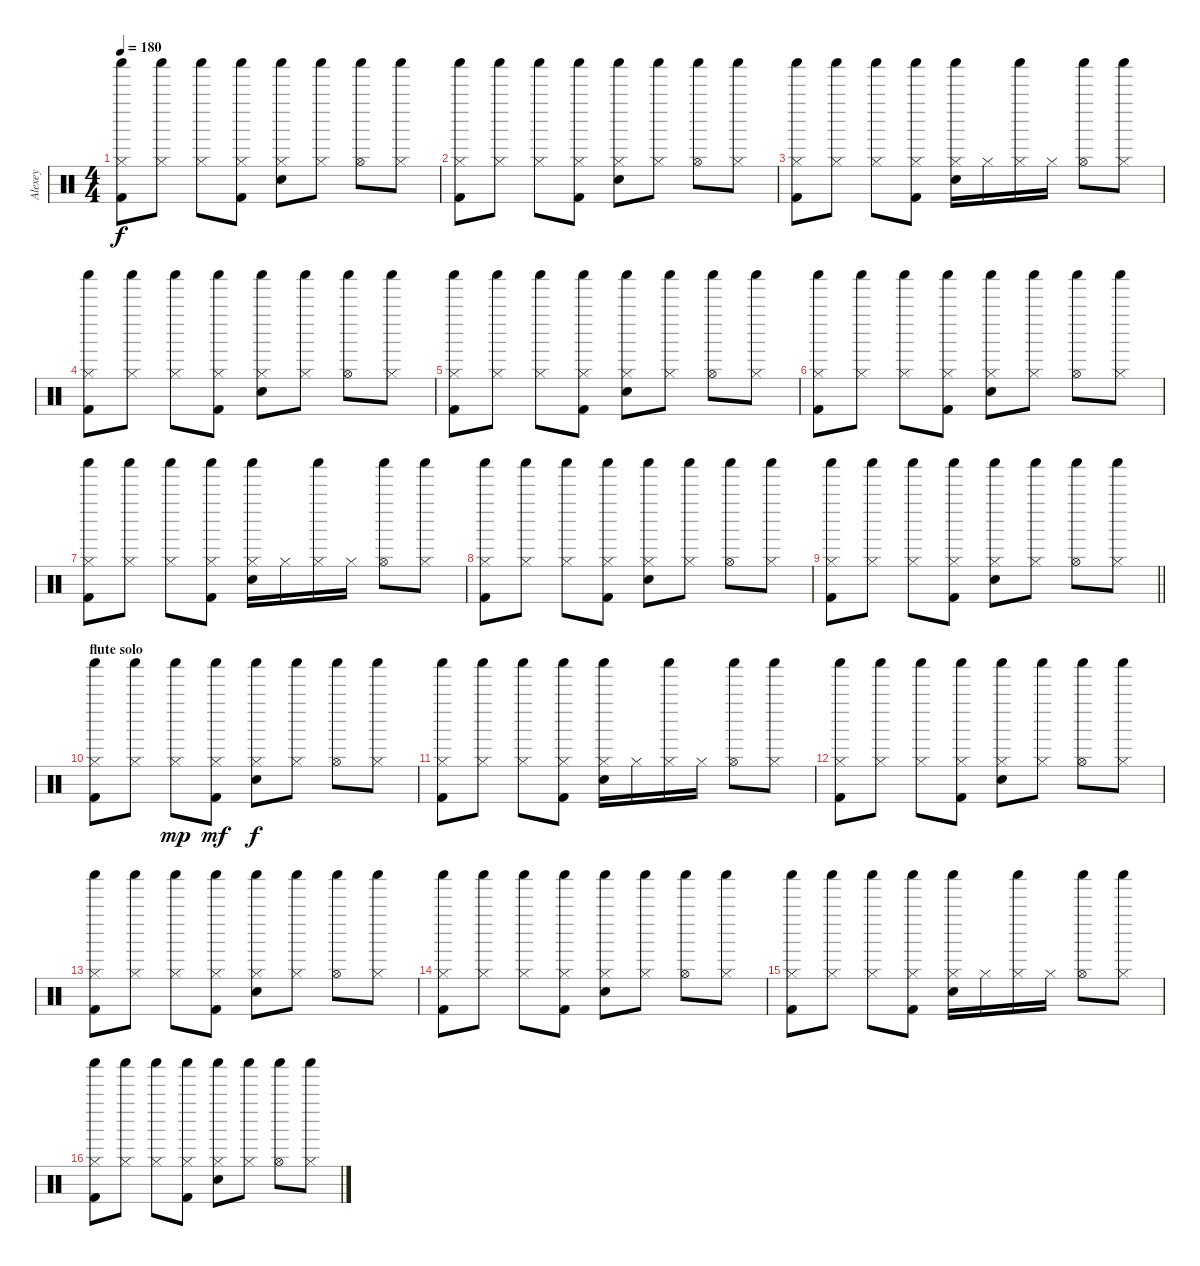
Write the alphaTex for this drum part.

\track ("Alexey" "Alexey") {instrument percussion}
\staff {score}
\articulation defaults
\ts (4 4)
\tempo 180
\clef neutral
\ks c
("Hi-Hat (closed)" "Shaker (hit)" "Kick (hit) 2").8{dy f} ("Hi-Hat (closed)" "Shaker (hit)").8 ("Hi-Hat (closed)" "Shaker (hit)").8 ("Hi-Hat (closed)" "Shaker (hit)" "Kick (hit) 2").8 ("Hi-Hat (closed)" "Shaker (hit)" "Snare (hit) 2").8 ("Hi-Hat (closed)" "Shaker (hit)").8 ("Hi-Hat (open)" "Shaker (hit)").8 ("Hi-Hat (closed)" "Shaker (hit)").8 |
("Hi-Hat (closed)" "Shaker (hit)" "Kick (hit) 2").8 ("Hi-Hat (closed)" "Shaker (hit)").8 ("Hi-Hat (closed)" "Shaker (hit)").8 ("Hi-Hat (closed)" "Shaker (hit)" "Kick (hit) 2").8 ("Hi-Hat (closed)" "Shaker (hit)" "Snare (hit) 2").8 ("Hi-Hat (closed)" "Shaker (hit)").8 ("Hi-Hat (open)" "Shaker (hit)").8 ("Hi-Hat (closed)" "Shaker (hit)").8 |
("Hi-Hat (closed)" "Shaker (hit)" "Kick (hit) 2").8 ("Hi-Hat (closed)" "Shaker (hit)").8 ("Hi-Hat (closed)" "Shaker (hit)").8 ("Hi-Hat (closed)" "Shaker (hit)" "Kick (hit) 2").8 ("Hi-Hat (closed)" "Shaker (hit)" "Snare (hit) 2").16 "Hi-Hat (closed)".16 ("Hi-Hat (closed)" "Shaker (hit)").16 "Hi-Hat (closed)".16 ("Hi-Hat (open)" "Shaker (hit)").8 ("Hi-Hat (closed)" "Shaker (hit)").8 |
("Hi-Hat (closed)" "Shaker (hit)" "Kick (hit) 2").8 ("Hi-Hat (closed)" "Shaker (hit)").8 ("Hi-Hat (closed)" "Shaker (hit)").8 ("Hi-Hat (closed)" "Shaker (hit)" "Kick (hit) 2").8 ("Hi-Hat (closed)" "Shaker (hit)" "Snare (hit) 2").8 ("Hi-Hat (closed)" "Shaker (hit)").8 ("Hi-Hat (open)" "Shaker (hit)").8 ("Hi-Hat (closed)" "Shaker (hit)").8 |
("Hi-Hat (closed)" "Shaker (hit)" "Kick (hit) 2").8 ("Hi-Hat (closed)" "Shaker (hit)").8 ("Hi-Hat (closed)" "Shaker (hit)").8 ("Hi-Hat (closed)" "Shaker (hit)" "Kick (hit) 2").8 ("Hi-Hat (closed)" "Shaker (hit)" "Snare (hit) 2").8 ("Hi-Hat (closed)" "Shaker (hit)").8 ("Hi-Hat (open)" "Shaker (hit)").8 ("Hi-Hat (closed)" "Shaker (hit)").8 |
("Hi-Hat (closed)" "Shaker (hit)" "Kick (hit) 2").8 ("Hi-Hat (closed)" "Shaker (hit)").8 ("Hi-Hat (closed)" "Shaker (hit)").8 ("Hi-Hat (closed)" "Shaker (hit)" "Kick (hit) 2").8 ("Hi-Hat (closed)" "Shaker (hit)" "Snare (hit) 2").8 ("Hi-Hat (closed)" "Shaker (hit)").8 ("Hi-Hat (open)" "Shaker (hit)").8 ("Hi-Hat (closed)" "Shaker (hit)").8 |
("Hi-Hat (closed)" "Shaker (hit)" "Kick (hit) 2").8 ("Hi-Hat (closed)" "Shaker (hit)").8 ("Hi-Hat (closed)" "Shaker (hit)").8 ("Hi-Hat (closed)" "Shaker (hit)" "Kick (hit) 2").8 ("Hi-Hat (closed)" "Shaker (hit)" "Snare (hit) 2").16 "Hi-Hat (closed)".16 ("Hi-Hat (closed)" "Shaker (hit)").16 "Hi-Hat (closed)".16 ("Hi-Hat (open)" "Shaker (hit)").8 ("Hi-Hat (closed)" "Shaker (hit)").8 |
("Hi-Hat (closed)" "Shaker (hit)" "Kick (hit) 2").8 ("Hi-Hat (closed)" "Shaker (hit)").8 ("Hi-Hat (closed)" "Shaker (hit)").8 ("Hi-Hat (closed)" "Shaker (hit)" "Kick (hit) 2").8 ("Hi-Hat (closed)" "Shaker (hit)" "Snare (hit) 2").8 ("Hi-Hat (closed)" "Shaker (hit)").8 ("Hi-Hat (open)" "Shaker (hit)").8 ("Hi-Hat (closed)" "Shaker (hit)").8 |
\barLineRight lightlight
("Hi-Hat (closed)" "Shaker (hit)" "Kick (hit) 2").8 ("Hi-Hat (closed)" "Shaker (hit)").8 ("Hi-Hat (closed)" "Shaker (hit)").8 ("Hi-Hat (closed)" "Shaker (hit)" "Kick (hit) 2").8 ("Hi-Hat (closed)" "Shaker (hit)" "Snare (hit) 2").8 ("Hi-Hat (closed)" "Shaker (hit)").8 ("Hi-Hat (open)" "Shaker (hit)").8 ("Hi-Hat (closed)" "Shaker (hit)").8 |
\section ("" "flute solo")
("Hi-Hat (closed)" "Shaker (hit)" "Kick (hit) 2").8 ("Hi-Hat (closed)" "Shaker (hit)").8 ("Hi-Hat (closed)" "Shaker (hit)").8{dy mp} ("Hi-Hat (closed)" "Shaker (hit)" "Kick (hit) 2").8{dy mf} ("Hi-Hat (closed)" "Shaker (hit)" "Snare (hit) 2").8{dy f} ("Hi-Hat (closed)" "Shaker (hit)").8 ("Hi-Hat (open)" "Shaker (hit)").8 ("Hi-Hat (closed)" "Shaker (hit)").8 |
("Hi-Hat (closed)" "Shaker (hit)" "Kick (hit) 2").8 ("Hi-Hat (closed)" "Shaker (hit)").8 ("Hi-Hat (closed)" "Shaker (hit)").8 ("Hi-Hat (closed)" "Shaker (hit)" "Kick (hit) 2").8 ("Hi-Hat (closed)" "Shaker (hit)" "Snare (hit) 2").16 "Hi-Hat (closed)".16 ("Hi-Hat (closed)" "Shaker (hit)").16 "Hi-Hat (closed)".16 ("Hi-Hat (open)" "Shaker (hit)").8 ("Hi-Hat (closed)" "Shaker (hit)").8 |
("Hi-Hat (closed)" "Shaker (hit)" "Kick (hit) 2").8 ("Hi-Hat (closed)" "Shaker (hit)").8 ("Hi-Hat (closed)" "Shaker (hit)").8 ("Hi-Hat (closed)" "Shaker (hit)" "Kick (hit) 2").8 ("Hi-Hat (closed)" "Shaker (hit)" "Snare (hit) 2").8 ("Hi-Hat (closed)" "Shaker (hit)").8 ("Hi-Hat (open)" "Shaker (hit)").8 ("Hi-Hat (closed)" "Shaker (hit)").8 |
("Hi-Hat (closed)" "Shaker (hit)" "Kick (hit) 2").8 ("Hi-Hat (closed)" "Shaker (hit)").8 ("Hi-Hat (closed)" "Shaker (hit)").8 ("Hi-Hat (closed)" "Shaker (hit)" "Kick (hit) 2").8 ("Hi-Hat (closed)" "Shaker (hit)" "Snare (hit) 2").8 ("Hi-Hat (closed)" "Shaker (hit)").8 ("Hi-Hat (open)" "Shaker (hit)").8 ("Hi-Hat (closed)" "Shaker (hit)").8 |
("Hi-Hat (closed)" "Shaker (hit)" "Kick (hit) 2").8 ("Hi-Hat (closed)" "Shaker (hit)").8 ("Hi-Hat (closed)" "Shaker (hit)").8 ("Hi-Hat (closed)" "Shaker (hit)" "Kick (hit) 2").8 ("Hi-Hat (closed)" "Shaker (hit)" "Snare (hit) 2").8 ("Hi-Hat (closed)" "Shaker (hit)").8 ("Hi-Hat (open)" "Shaker (hit)").8 ("Hi-Hat (closed)" "Shaker (hit)").8 |
("Hi-Hat (closed)" "Shaker (hit)" "Kick (hit) 2").8 ("Hi-Hat (closed)" "Shaker (hit)").8 ("Hi-Hat (closed)" "Shaker (hit)").8 ("Hi-Hat (closed)" "Shaker (hit)" "Kick (hit) 2").8 ("Hi-Hat (closed)" "Shaker (hit)" "Snare (hit) 2").16 "Hi-Hat (closed)".16 ("Hi-Hat (closed)" "Shaker (hit)").16 "Hi-Hat (closed)".16 ("Hi-Hat (open)" "Shaker (hit)").8 ("Hi-Hat (closed)" "Shaker (hit)").8 |
("Hi-Hat (closed)" "Shaker (hit)" "Kick (hit) 2").8 ("Hi-Hat (closed)" "Shaker (hit)").8 ("Hi-Hat (closed)" "Shaker (hit)").8 ("Hi-Hat (closed)" "Shaker (hit)" "Kick (hit) 2").8 ("Hi-Hat (closed)" "Shaker (hit)" "Snare (hit) 2").8 ("Hi-Hat (closed)" "Shaker (hit)").8 ("Hi-Hat (open)" "Shaker (hit)").8 ("Hi-Hat (closed)" "Shaker (hit)").8
